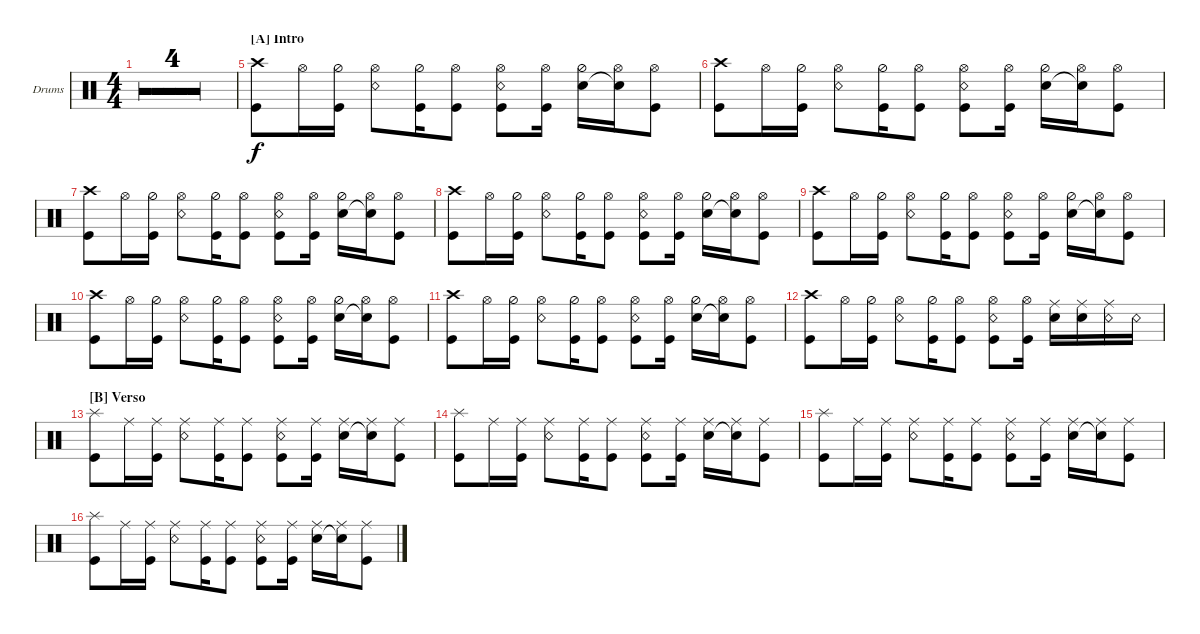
\defaultSystemsLayout 4
\bracketExtendMode groupsimilarinstruments
\firstSystemTrackNameOrientation horizontal
\otherSystemsTrackNameOrientation horizontal
\track ("Drum" "Drums") {multiBarRest instrument percussion}
\staff {score}
\articulation defaults
\ts (4 4)
\tempo 74
\clef neutral
\ks c
|
|
|
|
\section ("A" "Intro")
("Kick (hit)" "Crash high (hit)").8 "Hi-Hat (open)".16 ("Kick (hit)" "Hi-Hat (half)").16 ("Snare (rim shot)" "Hi-Hat (open)").8 ("Kick (hit)" "Hi-Hat (half)").16 ("Kick (hit)" "Hi-Hat (open)").8 ("Kick (hit)" "Snare (rim shot)" "Hi-Hat (open)").8 ("Kick (hit)" "Hi-Hat (open)").16 ("Snare (hit) 2" "Hi-Hat (half)").16 ("Snare (hit) 2"{t} "Hi-Hat (open)").16 ("Kick (hit)" "Hi-Hat (open)").8 |
("Kick (hit)" "Crash high (hit)").8 "Hi-Hat (open)".16 ("Kick (hit)" "Hi-Hat (half)").16 ("Snare (rim shot)" "Hi-Hat (open)").8 ("Kick (hit)" "Hi-Hat (half)").16 ("Kick (hit)" "Hi-Hat (open)").8 ("Kick (hit)" "Snare (rim shot)" "Hi-Hat (open)").8 ("Kick (hit)" "Hi-Hat (open)").16 ("Snare (hit) 2" "Hi-Hat (half)").16 ("Snare (hit) 2"{t} "Hi-Hat (open)").16 ("Kick (hit)" "Hi-Hat (open)").8 |
("Kick (hit)" "Crash high (hit)").8 "Hi-Hat (open)".16 ("Kick (hit)" "Hi-Hat (half)").16 ("Snare (rim shot)" "Hi-Hat (open)").8 ("Kick (hit)" "Hi-Hat (half)").16 ("Kick (hit)" "Hi-Hat (open)").8 ("Kick (hit)" "Snare (rim shot)" "Hi-Hat (open)").8 ("Kick (hit)" "Hi-Hat (open)").16 ("Snare (hit) 2" "Hi-Hat (half)").16 ("Snare (hit) 2"{t} "Hi-Hat (open)").16 ("Kick (hit)" "Hi-Hat (open)").8 |
("Kick (hit)" "Crash high (hit)").8 "Hi-Hat (open)".16 ("Kick (hit)" "Hi-Hat (half)").16 ("Snare (rim shot)" "Hi-Hat (open)").8 ("Kick (hit)" "Hi-Hat (half)").16 ("Kick (hit)" "Hi-Hat (open)").8 ("Kick (hit)" "Snare (rim shot)" "Hi-Hat (open)").8 ("Kick (hit)" "Hi-Hat (open)").16 ("Snare (hit) 2" "Hi-Hat (half)").16 ("Snare (hit) 2"{t} "Hi-Hat (open)").16 ("Kick (hit)" "Hi-Hat (open)").8 |
("Kick (hit)" "Crash high (hit)").8 "Hi-Hat (open)".16 ("Kick (hit)" "Hi-Hat (half)").16 ("Snare (rim shot)" "Hi-Hat (open)").8 ("Kick (hit)" "Hi-Hat (half)").16 ("Kick (hit)" "Hi-Hat (open)").8 ("Kick (hit)" "Snare (rim shot)" "Hi-Hat (open)").8 ("Kick (hit)" "Hi-Hat (open)").16 ("Snare (hit) 2" "Hi-Hat (half)").16 ("Snare (hit) 2"{t} "Hi-Hat (open)").16 ("Kick (hit)" "Hi-Hat (open)").8 |
("Kick (hit)" "Crash high (hit)").8 "Hi-Hat (open)".16 ("Kick (hit)" "Hi-Hat (half)").16 ("Snare (rim shot)" "Hi-Hat (open)").8 ("Kick (hit)" "Hi-Hat (half)").16 ("Kick (hit)" "Hi-Hat (open)").8 ("Kick (hit)" "Snare (rim shot)" "Hi-Hat (open)").8 ("Kick (hit)" "Hi-Hat (open)").16 ("Snare (hit) 2" "Hi-Hat (half)").16 ("Snare (hit) 2"{t} "Hi-Hat (open)").16 ("Kick (hit)" "Hi-Hat (open)").8 |
("Kick (hit)" "Crash high (hit)").8 "Hi-Hat (open)".16 ("Kick (hit)" "Hi-Hat (half)").16 ("Snare (rim shot)" "Hi-Hat (open)").8 ("Kick (hit)" "Hi-Hat (half)").16 ("Kick (hit)" "Hi-Hat (open)").8 ("Kick (hit)" "Snare (rim shot)" "Hi-Hat (open)").8 ("Kick (hit)" "Hi-Hat (open)").16 ("Snare (hit) 2" "Hi-Hat (half)").16 ("Snare (hit) 2"{t} "Hi-Hat (open)").16 ("Kick (hit)" "Hi-Hat (open)").8 |
("Kick (hit)" "Crash high (hit)").8 "Hi-Hat (open)".16 ("Kick (hit)" "Hi-Hat (half)").16 ("Snare (rim shot)" "Hi-Hat (open)").8 ("Kick (hit)" "Hi-Hat (half)").16 ("Kick (hit)" "Hi-Hat (open)").8 ("Kick (hit)" "Snare (rim shot)" "Hi-Hat (open)").8 ("Kick (hit)" "Hi-Hat (open)").16 ("Snare (hit) 2" "Ride (middle)").16 ("Snare (hit) 2" "Ride (middle)").16 ("Ride (middle)" "Snare (rim shot)").16 "Snare (rim shot)".16 |
\section ("B" "Verso")
("Kick (hit)" "Splash (hit)").8 "Ride (middle)".16 ("Kick (hit)" "Ride (middle)").16 ("Snare (rim shot)" "Ride (middle)").8 ("Kick (hit)" "Ride (middle)").16 ("Kick (hit)" "Ride (middle)").8 ("Kick (hit)" "Snare (rim shot)" "Ride (middle)").8 ("Kick (hit)" "Ride (middle)").16 ("Snare (hit) 2" "Ride (middle)").16 ("Snare (hit) 2"{t} "Ride (middle)").16 ("Kick (hit)" "Ride (middle)").8 |
("Kick (hit)" "Splash (hit)").8 "Ride (middle)".16 ("Kick (hit)" "Ride (middle)").16 ("Snare (rim shot)" "Ride (middle)").8 ("Kick (hit)" "Ride (middle)").16 ("Kick (hit)" "Ride (middle)").8 ("Kick (hit)" "Snare (rim shot)" "Ride (middle)").8 ("Kick (hit)" "Ride (middle)").16 ("Snare (hit) 2" "Ride (middle)").16 ("Snare (hit) 2"{t} "Ride (middle)").16 ("Kick (hit)" "Ride (middle)").8 |
("Kick (hit)" "Splash (hit)").8 "Ride (middle)".16 ("Kick (hit)" "Ride (middle)").16 ("Snare (rim shot)" "Ride (middle)").8 ("Kick (hit)" "Ride (middle)").16 ("Kick (hit)" "Ride (middle)").8 ("Kick (hit)" "Snare (rim shot)" "Ride (middle)").8 ("Kick (hit)" "Ride (middle)").16 ("Snare (hit) 2" "Ride (middle)").16 ("Snare (hit) 2"{t} "Ride (middle)").16 ("Kick (hit)" "Ride (middle)").8 |
("Kick (hit)" "Splash (hit)").8 "Ride (middle)".16 ("Kick (hit)" "Ride (middle)").16 ("Snare (rim shot)" "Ride (middle)").8 ("Kick (hit)" "Ride (middle)").16 ("Kick (hit)" "Ride (middle)").8 ("Kick (hit)" "Snare (rim shot)" "Ride (middle)").8 ("Kick (hit)" "Ride (middle)").16 ("Snare (hit) 2" "Ride (middle)").16 ("Snare (hit) 2"{t} "Ride (middle)").16 ("Kick (hit)" "Ride (middle)").8
